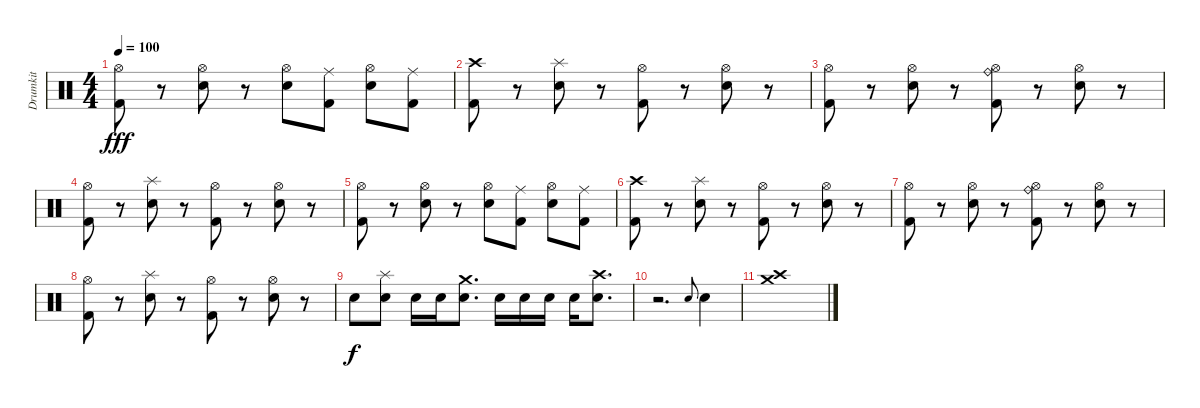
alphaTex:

\track ("Drumkit" "Drumkit") {instrument percussion}
\staff {score}
\articulation defaults
\ts (4 4)
\tempo 100
\clef neutral
\ks c
("Kick (hit) 2" "Hi-Hat (open)").8{dy fff} r.8 ("Snare (hit) 2" "Hi-Hat (open)").8 r.8 ("Snare (hit) 2" "Hi-Hat (open)").8 ("Kick (hit) 2" "Ride (middle)").8 ("Snare (hit) 2" "Hi-Hat (open)").8 ("Kick (hit) 2" "Ride (middle)").8 |
("Kick (hit) 2" "Crash high (hit)").8 r.8 ("Snare (hit) 2" "Splash (hit)").8 r.8 ("Kick (hit) 2" "Hi-Hat (open)").8 r.8 ("Snare (hit) 2" "Hi-Hat (open)").8 r.8 |
("Kick (hit) 2" "Hi-Hat (open)").8 r.8 ("Snare (hit) 2" "Hi-Hat (open)").8 r.8 ("Kick (hit) 2" "Hi-Hat (open)" "Ride (bell)").8 r.8 ("Hi-Hat (open)" "Snare (hit) 2").8 r.8 |
("Kick (hit) 2" "Hi-Hat (open)").8 r.8 ("Snare (hit) 2" "Splash (hit)").8 r.8 ("Kick (hit) 2" "Hi-Hat (open)").8 r.8 ("Snare (hit) 2" "Hi-Hat (open)").8 r.8 |
("Kick (hit) 2" "Hi-Hat (open)").8 r.8 ("Snare (hit) 2" "Hi-Hat (open)").8 r.8 ("Snare (hit) 2" "Hi-Hat (open)").8 ("Kick (hit) 2" "Ride (middle)").8 ("Snare (hit) 2" "Hi-Hat (open)").8 ("Kick (hit) 2" "Ride (middle)").8 |
("Kick (hit) 2" "Crash high (hit)").8 r.8 ("Snare (hit) 2" "Splash (hit)").8 r.8 ("Kick (hit) 2" "Hi-Hat (open)").8 r.8 ("Snare (hit) 2" "Hi-Hat (open)").8 r.8 |
("Kick (hit) 2" "Hi-Hat (open)").8 r.8 ("Snare (hit) 2" "Hi-Hat (open)").8 r.8 ("Kick (hit) 2" "Hi-Hat (open)" "Ride (bell)").8 r.8 ("Hi-Hat (open)" "Snare (hit) 2").8 r.8 |
("Kick (hit) 2" "Hi-Hat (open)").8 r.8 ("Snare (hit) 2" "Splash (hit)").8 r.8 ("Kick (hit) 2" "Hi-Hat (open)").8 r.8 ("Snare (hit) 2" "Hi-Hat (open)").8 r.8 |
"Snare (hit) 2".8{dy f} ("Snare (hit) 2" "Splash (hit)").8 "Snare (hit) 2".16 "Snare (hit) 2".16 ("Snare (hit) 2" "Crash medium (hit)").8{d} "Snare (hit) 2".16 "Snare (hit) 2".16 "Snare (hit) 2".16 "Snare (hit) 2".16 ("Snare (hit) 2" "Crash high (hit)").8{d} |
r.2{d} "Snare (hit)".8{gr onbeat} "Snare (hit) 2".4 |
("Crash medium (hit)" "Crash high (hit)").1
